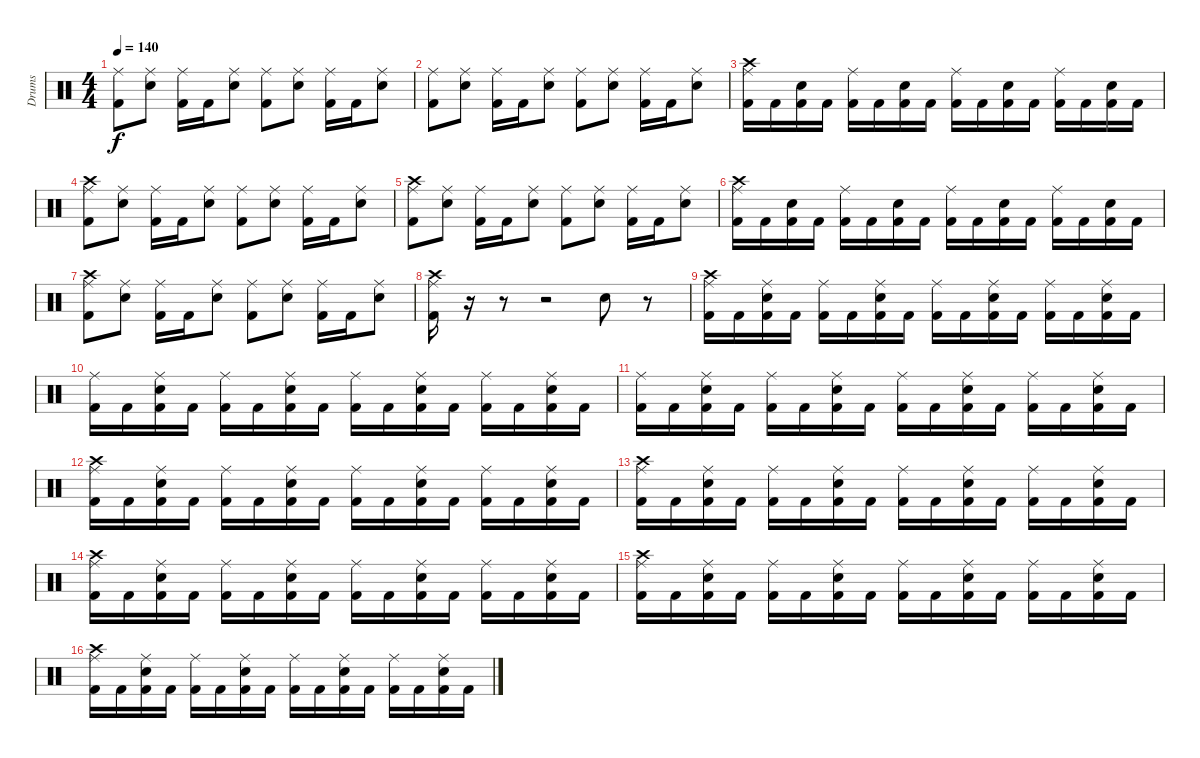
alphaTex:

\track ("Drums" "Drums") {instrument percussion}
\staff {score}
\articulation defaults
\ts (4 4)
\tempo 140
\clef neutral
\ks c
("Kick (hit) 2" "Ride (middle)").8{dy f} ("Snare (hit) 2" "Ride (middle)").8 ("Kick (hit) 2" "Ride (middle)").16 "Kick (hit) 2".16 ("Snare (hit) 2" "Ride (middle)").8 ("Kick (hit) 2" "Ride (middle)").8 ("Snare (hit) 2" "Ride (middle)").8 ("Kick (hit) 2" "Ride (middle)").16 "Kick (hit) 2".16 ("Snare (hit) 2" "Ride (middle)").8 |
("Kick (hit) 2" "Ride (middle)").8 ("Snare (hit) 2" "Ride (middle)").8 ("Kick (hit) 2" "Ride (middle)").16 "Kick (hit) 2".16 ("Snare (hit) 2" "Ride (middle)").8 ("Kick (hit) 2" "Ride (middle)").8 ("Snare (hit) 2" "Ride (middle)").8 ("Kick (hit) 2" "Ride (middle)").16 "Kick (hit) 2".16 ("Snare (hit) 2" "Ride (middle)").8 |
("Kick (hit) 2" "Crash high (hit)" "Ride (middle)").16 "Kick (hit) 2".16 ("Kick (hit) 2" "Snare (hit) 2").16 "Kick (hit) 2".16 ("Kick (hit) 2" "Ride (middle)").16 "Kick (hit) 2".16 ("Kick (hit) 2" "Snare (hit) 2").16 "Kick (hit) 2".16 ("Kick (hit) 2" "Ride (middle)").16 "Kick (hit) 2".16 ("Kick (hit) 2" "Snare (hit) 2").16 "Kick (hit) 2".16 ("Kick (hit) 2" "Ride (middle)").16 "Kick (hit) 2".16 ("Kick (hit) 2" "Snare (hit) 2").16 "Kick (hit) 2".16 |
("Kick (hit) 2" "Crash high (hit)" "Ride (middle)").8 ("Snare (hit) 2" "Ride (middle)").8 ("Kick (hit) 2" "Ride (middle)").16 "Kick (hit) 2".16 ("Snare (hit) 2" "Ride (middle)").8 ("Kick (hit) 2" "Ride (middle)").8 ("Snare (hit) 2" "Ride (middle)").8 ("Kick (hit) 2" "Ride (middle)").16 "Kick (hit) 2".16 ("Snare (hit) 2" "Ride (middle)").8 |
("Kick (hit) 2" "Crash high (hit)" "Ride (middle)").8 ("Snare (hit) 2" "Ride (middle)").8 ("Kick (hit) 2" "Ride (middle)").16 "Kick (hit) 2".16 ("Snare (hit) 2" "Ride (middle)").8 ("Kick (hit) 2" "Ride (middle)").8 ("Snare (hit) 2" "Ride (middle)").8 ("Kick (hit) 2" "Ride (middle)").16 "Kick (hit) 2".16 ("Snare (hit) 2" "Ride (middle)").8 |
("Kick (hit) 2" "Crash high (hit)" "Ride (middle)").16 "Kick (hit) 2".16 ("Kick (hit) 2" "Snare (hit) 2").16 "Kick (hit) 2".16 ("Kick (hit) 2" "Ride (middle)").16 "Kick (hit) 2".16 ("Kick (hit) 2" "Snare (hit) 2").16 "Kick (hit) 2".16 ("Kick (hit) 2" "Ride (middle)").16 "Kick (hit) 2".16 ("Kick (hit) 2" "Snare (hit) 2").16 "Kick (hit) 2".16 ("Kick (hit) 2" "Ride (middle)").16 "Kick (hit) 2".16 ("Kick (hit) 2" "Snare (hit) 2").16 "Kick (hit) 2".16 |
("Kick (hit) 2" "Crash high (hit)" "Ride (middle)").8 ("Snare (hit) 2" "Ride (middle)").8 ("Kick (hit) 2" "Ride (middle)").16 "Kick (hit) 2".16 ("Snare (hit) 2" "Ride (middle)").8 ("Kick (hit) 2" "Ride (middle)").8 ("Snare (hit) 2" "Ride (middle)").8 ("Kick (hit) 2" "Ride (middle)").16 "Kick (hit) 2".16 ("Snare (hit) 2" "Ride (middle)").8 |
("Kick (hit) 2" "Crash high (hit)" "Ride (middle)").16 r.16 r.8 r.2 "Snare (hit) 2".8 r.8 |
("Kick (hit) 2" "Crash high (hit)" "Ride (middle)").16 "Kick (hit) 2".16 ("Kick (hit) 2" "Snare (hit) 2" "Ride (middle)").16 "Kick (hit) 2".16 ("Kick (hit) 2" "Ride (middle)").16 "Kick (hit) 2".16 ("Kick (hit) 2" "Snare (hit) 2" "Ride (middle)").16 "Kick (hit) 2".16 ("Kick (hit) 2" "Ride (middle)").16 "Kick (hit) 2".16 ("Kick (hit) 2" "Snare (hit) 2" "Ride (middle)").16 "Kick (hit) 2".16 ("Kick (hit) 2" "Ride (middle)").16 "Kick (hit) 2".16 ("Kick (hit) 2" "Snare (hit) 2" "Ride (middle)").16 "Kick (hit) 2".16 |
("Kick (hit) 2" "Ride (middle)").16 "Kick (hit) 2".16 ("Kick (hit) 2" "Snare (hit) 2" "Ride (middle)").16 "Kick (hit) 2".16 ("Kick (hit) 2" "Ride (middle)").16 "Kick (hit) 2".16 ("Kick (hit) 2" "Snare (hit) 2" "Ride (middle)").16 "Kick (hit) 2".16 ("Kick (hit) 2" "Ride (middle)").16 "Kick (hit) 2".16 ("Kick (hit) 2" "Snare (hit) 2" "Ride (middle)").16 "Kick (hit) 2".16 ("Kick (hit) 2" "Ride (middle)").16 "Kick (hit) 2".16 ("Kick (hit) 2" "Snare (hit) 2" "Ride (middle)").16 "Kick (hit) 2".16 |
("Kick (hit) 2" "Ride (middle)").16 "Kick (hit) 2".16 ("Kick (hit) 2" "Snare (hit) 2" "Ride (middle)").16 "Kick (hit) 2".16 ("Kick (hit) 2" "Ride (middle)").16 "Kick (hit) 2".16 ("Kick (hit) 2" "Snare (hit) 2" "Ride (middle)").16 "Kick (hit) 2".16 ("Kick (hit) 2" "Ride (middle)").16 "Kick (hit) 2".16 ("Kick (hit) 2" "Snare (hit) 2" "Ride (middle)").16 "Kick (hit) 2".16 ("Kick (hit) 2" "Ride (middle)").16 "Kick (hit) 2".16 ("Kick (hit) 2" "Snare (hit) 2" "Ride (middle)").16 "Kick (hit) 2".16 |
("Kick (hit) 2" "Crash high (hit)" "Ride (middle)").16 "Kick (hit) 2".16 ("Kick (hit) 2" "Snare (hit) 2" "Ride (middle)").16 "Kick (hit) 2".16 ("Kick (hit) 2" "Ride (middle)").16 "Kick (hit) 2".16 ("Kick (hit) 2" "Snare (hit) 2" "Ride (middle)").16 "Kick (hit) 2".16 ("Kick (hit) 2" "Ride (middle)").16 "Kick (hit) 2".16 ("Kick (hit) 2" "Snare (hit) 2" "Ride (middle)").16 "Kick (hit) 2".16 ("Kick (hit) 2" "Ride (middle)").16 "Kick (hit) 2".16 ("Kick (hit) 2" "Snare (hit) 2" "Ride (middle)").16 "Kick (hit) 2".16 |
("Kick (hit) 2" "Crash high (hit)" "Ride (middle)").16 "Kick (hit) 2".16 ("Kick (hit) 2" "Snare (hit) 2" "Ride (middle)").16 "Kick (hit) 2".16 ("Kick (hit) 2" "Ride (middle)").16 "Kick (hit) 2".16 ("Kick (hit) 2" "Snare (hit) 2" "Ride (middle)").16 "Kick (hit) 2".16 ("Kick (hit) 2" "Ride (middle)").16 "Kick (hit) 2".16 ("Kick (hit) 2" "Snare (hit) 2" "Ride (middle)").16 "Kick (hit) 2".16 ("Kick (hit) 2" "Ride (middle)").16 "Kick (hit) 2".16 ("Kick (hit) 2" "Snare (hit) 2" "Ride (middle)").16 "Kick (hit) 2".16 |
("Kick (hit) 2" "Crash high (hit)" "Ride (middle)").16 "Kick (hit) 2".16 ("Kick (hit) 2" "Snare (hit) 2" "Ride (middle)").16 "Kick (hit) 2".16 ("Kick (hit) 2" "Ride (middle)").16 "Kick (hit) 2".16 ("Kick (hit) 2" "Snare (hit) 2" "Ride (middle)").16 "Kick (hit) 2".16 ("Kick (hit) 2" "Ride (middle)").16 "Kick (hit) 2".16 ("Kick (hit) 2" "Snare (hit) 2" "Ride (middle)").16 "Kick (hit) 2".16 ("Kick (hit) 2" "Ride (middle)").16 "Kick (hit) 2".16 ("Kick (hit) 2" "Snare (hit) 2" "Ride (middle)").16 "Kick (hit) 2".16 |
("Kick (hit) 2" "Crash high (hit)" "Ride (middle)").16 "Kick (hit) 2".16 ("Kick (hit) 2" "Snare (hit) 2" "Ride (middle)").16 "Kick (hit) 2".16 ("Kick (hit) 2" "Ride (middle)").16 "Kick (hit) 2".16 ("Kick (hit) 2" "Snare (hit) 2" "Ride (middle)").16 "Kick (hit) 2".16 ("Kick (hit) 2" "Ride (middle)").16 "Kick (hit) 2".16 ("Kick (hit) 2" "Snare (hit) 2" "Ride (middle)").16 "Kick (hit) 2".16 ("Kick (hit) 2" "Ride (middle)").16 "Kick (hit) 2".16 ("Kick (hit) 2" "Snare (hit) 2" "Ride (middle)").16 "Kick (hit) 2".16 |
("Kick (hit) 2" "Crash high (hit)" "Ride (middle)").16 "Kick (hit) 2".16 ("Kick (hit) 2" "Snare (hit) 2" "Ride (middle)").16 "Kick (hit) 2".16 ("Kick (hit) 2" "Ride (middle)").16 "Kick (hit) 2".16 ("Kick (hit) 2" "Snare (hit) 2" "Ride (middle)").16 "Kick (hit) 2".16 ("Kick (hit) 2" "Ride (middle)").16 "Kick (hit) 2".16 ("Kick (hit) 2" "Snare (hit) 2" "Ride (middle)").16 "Kick (hit) 2".16 ("Kick (hit) 2" "Ride (middle)").16 "Kick (hit) 2".16 ("Kick (hit) 2" "Snare (hit) 2" "Ride (middle)").16 "Kick (hit) 2".16
